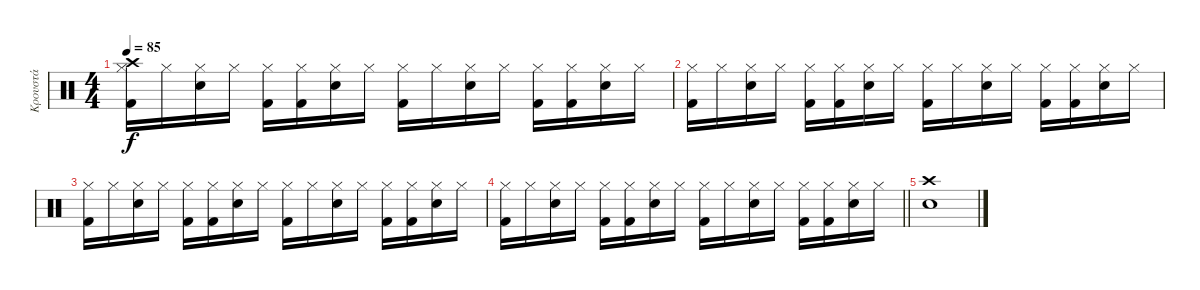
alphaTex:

\track ("Κρουστά" "Κρουστά") {instrument percussion}
\staff {score}
\articulation defaults
\ts (4 4)
\tempo 85
\clef neutral
\ks c
("Crash high (hit)" "Hi-Hat (closed)" "Kick (hit) 2").16{dy f} "Hi-Hat (closed)".16 ("Hi-Hat (closed)" "Snare (hit) 2").16 "Hi-Hat (closed)".16 ("Hi-Hat (closed)" "Kick (hit) 2").16 ("Hi-Hat (closed)" "Kick (hit) 2").16 ("Hi-Hat (closed)" "Snare (hit) 2").16 "Hi-Hat (closed)".16 ("Hi-Hat (closed)" "Kick (hit) 2").16 "Hi-Hat (closed)".16 ("Hi-Hat (closed)" "Snare (hit) 2").16 "Hi-Hat (closed)".16 ("Hi-Hat (closed)" "Kick (hit) 2").16 ("Hi-Hat (closed)" "Kick (hit) 2").16 ("Hi-Hat (closed)" "Snare (hit) 2").16 "Hi-Hat (closed)".16 |
("Hi-Hat (closed)" "Kick (hit) 2").16 "Hi-Hat (closed)".16 ("Hi-Hat (closed)" "Snare (hit) 2").16 "Hi-Hat (closed)".16 ("Hi-Hat (closed)" "Kick (hit) 2").16 ("Hi-Hat (closed)" "Kick (hit) 2").16 ("Hi-Hat (closed)" "Snare (hit) 2").16 "Hi-Hat (closed)".16 ("Hi-Hat (closed)" "Kick (hit) 2").16 "Hi-Hat (closed)".16 ("Hi-Hat (closed)" "Snare (hit) 2").16 "Hi-Hat (closed)".16 ("Hi-Hat (closed)" "Kick (hit) 2").16 ("Hi-Hat (closed)" "Kick (hit) 2").16 ("Hi-Hat (closed)" "Snare (hit) 2").16 "Hi-Hat (closed)".16 |
("Hi-Hat (closed)" "Kick (hit) 2").16 "Hi-Hat (closed)".16 ("Hi-Hat (closed)" "Snare (hit) 2").16 "Hi-Hat (closed)".16 ("Hi-Hat (closed)" "Kick (hit) 2").16 ("Hi-Hat (closed)" "Kick (hit) 2").16 ("Hi-Hat (closed)" "Snare (hit) 2").16 "Hi-Hat (closed)".16 ("Hi-Hat (closed)" "Kick (hit) 2").16 "Hi-Hat (closed)".16 ("Hi-Hat (closed)" "Snare (hit) 2").16 "Hi-Hat (closed)".16 ("Hi-Hat (closed)" "Kick (hit) 2").16 ("Hi-Hat (closed)" "Kick (hit) 2").16 ("Hi-Hat (closed)" "Snare (hit) 2").16 "Hi-Hat (closed)".16 |
\barLineRight lightlight
("Hi-Hat (closed)" "Kick (hit) 2").16 "Hi-Hat (closed)".16 ("Hi-Hat (closed)" "Snare (hit) 2").16 "Hi-Hat (closed)".16 ("Hi-Hat (closed)" "Kick (hit) 2").16 ("Hi-Hat (closed)" "Kick (hit) 2").16 ("Hi-Hat (closed)" "Snare (hit) 2").16 "Hi-Hat (closed)".16 ("Hi-Hat (closed)" "Kick (hit) 2").16 "Hi-Hat (closed)".16 ("Hi-Hat (closed)" "Snare (hit) 2").16 "Hi-Hat (closed)".16 ("Hi-Hat (closed)" "Kick (hit) 2").16 ("Hi-Hat (closed)" "Kick (hit) 2").16 ("Hi-Hat (closed)" "Snare (hit) 2").16 "Hi-Hat (closed)".16 |
("Crash high (hit)" "Snare (hit) 2").1
